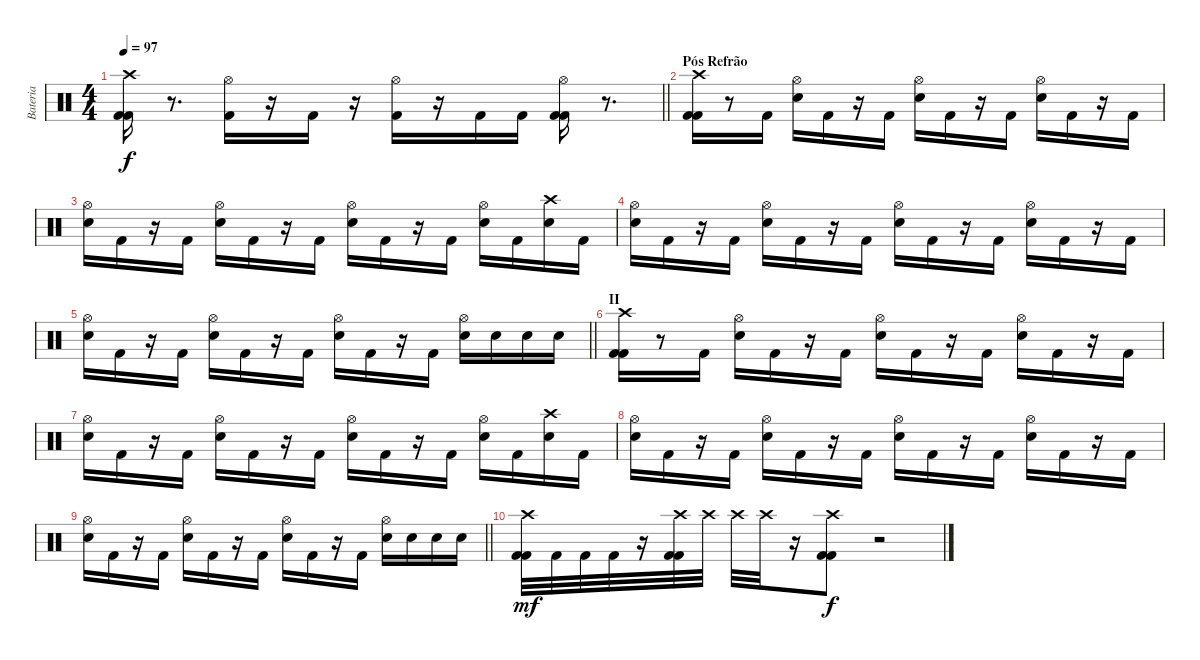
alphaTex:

\track ("Bateria" "Bateria") {instrument percussion}
\staff {score}
\articulation defaults
\ts (4 4)
\tempo 97
\clef neutral
\barLineRight lightlight
\ks c
("Crash high (hit)" "Kick (hit) 2" "Kick (hit) 2").16{dy f} r.8{d} ("Hi-Hat (open)" "Kick (hit) 2").16 r.16 "Kick (hit) 2".16 r.16 ("Hi-Hat (open)" "Kick (hit) 2").16 r.16 "Kick (hit) 2".16 "Kick (hit) 2".16 ("Hi-Hat (open)" "Kick (hit) 2" "Kick (hit) 2").16 r.8{d} |
\section ("" "Pós Refrão")
("Crash high (hit)" "Kick (hit) 2" "Kick (hit) 2").16 r.8 "Kick (hit) 2".16 ("Hi-Hat (open)" "Electric Snare (hit)").16 "Kick (hit) 2".16 r.16 "Kick (hit) 2".16 ("Hi-Hat (open)" "Electric Snare (hit)").16 "Kick (hit) 2".16 r.16 "Kick (hit) 2".16 ("Hi-Hat (open)" "Electric Snare (hit)").16 "Kick (hit) 2".16 r.16 "Kick (hit) 2".16 |
("Hi-Hat (open)" "Electric Snare (hit)").16 "Kick (hit) 2".16 r.16 "Kick (hit) 2".16 ("Hi-Hat (open)" "Electric Snare (hit)").16 "Kick (hit) 2".16 r.16 "Kick (hit) 2".16 ("Hi-Hat (open)" "Electric Snare (hit)").16 "Kick (hit) 2".16 r.16 "Kick (hit) 2".16 ("Hi-Hat (open)" "Electric Snare (hit)").16 "Kick (hit) 2".16 ("Crash high (hit)" "Electric Snare (hit)").16 "Kick (hit) 2".16 |
("Hi-Hat (open)" "Electric Snare (hit)").16 "Kick (hit) 2".16 r.16 "Kick (hit) 2".16 ("Hi-Hat (open)" "Electric Snare (hit)").16 "Kick (hit) 2".16 r.16 "Kick (hit) 2".16 ("Hi-Hat (open)" "Electric Snare (hit)").16 "Kick (hit) 2".16 r.16 "Kick (hit) 2".16 ("Hi-Hat (open)" "Electric Snare (hit)").16 "Kick (hit) 2".16 r.16 "Kick (hit) 2".16 |
\barLineRight lightlight
("Hi-Hat (open)" "Electric Snare (hit)").16 "Kick (hit) 2".16 r.16 "Kick (hit) 2".16 ("Hi-Hat (open)" "Electric Snare (hit)").16 "Kick (hit) 2".16 r.16 "Kick (hit) 2".16 ("Hi-Hat (open)" "Electric Snare (hit)").16 "Kick (hit) 2".16 r.16 "Kick (hit) 2".16 ("Hi-Hat (open)" "Electric Snare (hit)").16 "Electric Snare (hit)".16 "Electric Snare (hit)".16 "Electric Snare (hit)".16 |
\section ("" "II")
("Crash high (hit)" "Kick (hit) 2" "Kick (hit) 2").16 r.8 "Kick (hit) 2".16 ("Hi-Hat (open)" "Electric Snare (hit)").16 "Kick (hit) 2".16 r.16 "Kick (hit) 2".16 ("Hi-Hat (open)" "Electric Snare (hit)").16 "Kick (hit) 2".16 r.16 "Kick (hit) 2".16 ("Hi-Hat (open)" "Electric Snare (hit)").16 "Kick (hit) 2".16 r.16 "Kick (hit) 2".16 |
("Hi-Hat (open)" "Electric Snare (hit)").16 "Kick (hit) 2".16 r.16 "Kick (hit) 2".16 ("Hi-Hat (open)" "Electric Snare (hit)").16 "Kick (hit) 2".16 r.16 "Kick (hit) 2".16 ("Hi-Hat (open)" "Electric Snare (hit)").16 "Kick (hit) 2".16 r.16 "Kick (hit) 2".16 ("Hi-Hat (open)" "Electric Snare (hit)").16 "Kick (hit) 2".16 ("Crash high (hit)" "Electric Snare (hit)").16 "Kick (hit) 2".16 |
("Hi-Hat (open)" "Electric Snare (hit)").16 "Kick (hit) 2".16 r.16 "Kick (hit) 2".16 ("Hi-Hat (open)" "Electric Snare (hit)").16 "Kick (hit) 2".16 r.16 "Kick (hit) 2".16 ("Hi-Hat (open)" "Electric Snare (hit)").16 "Kick (hit) 2".16 r.16 "Kick (hit) 2".16 ("Hi-Hat (open)" "Electric Snare (hit)").16 "Kick (hit) 2".16 r.16 "Kick (hit) 2".16 |
\barLineRight lightlight
("Hi-Hat (open)" "Electric Snare (hit)").16 "Kick (hit) 2".16 r.16 "Kick (hit) 2".16 ("Hi-Hat (open)" "Electric Snare (hit)").16 "Kick (hit) 2".16 r.16 "Kick (hit) 2".16 ("Hi-Hat (open)" "Electric Snare (hit)").16 "Kick (hit) 2".16 r.16 "Kick (hit) 2".16 ("Hi-Hat (open)" "Electric Snare (hit)").16 "Electric Snare (hit)".16 "Electric Snare (hit)".16 "Electric Snare (hit)".16 |
("Crash high (hit)" "Kick (hit) 2" "Kick (hit) 2").32{dy mf} "Kick (hit) 2".32 "Kick (hit) 2".32 "Kick (hit) 2".32 r.16 ("Crash high (hit)" "Kick (hit) 2" "Kick (hit) 2").32 "Crash high (hit)".32 "Crash high (hit)".32 "Crash high (hit)".32 r.16 ("Crash high (hit)" "Kick (hit) 2" "Kick (hit) 2").8{dy f} r.2
